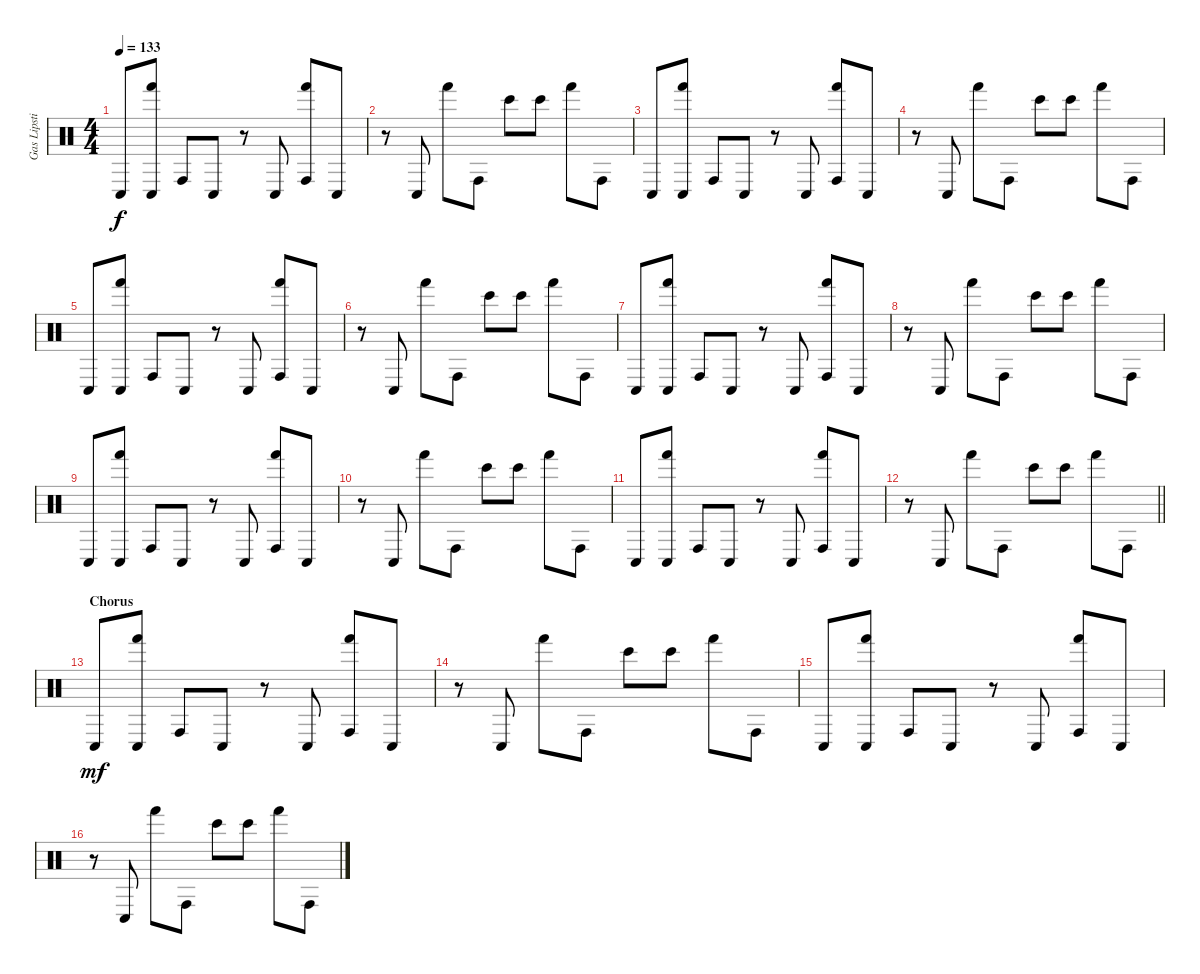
\track ("Gas Lipstick (Drums)" "Gas Lipsti") {instrument percussion}
\staff {score}
\articulation defaults
\ts (4 4)
\tempo 133
\clef neutral
\ks c "Conga low (hit)".8{dy f}
("Hand (hit)" "Conga low (hit)").8 "Conga high (hit)".8 "Conga low (hit)".8 r.8 "Conga low (hit)".8 ("Hand (hit)" "Conga high (hit)").8 "Conga low (hit)".8 |
r.8 "Conga low (hit)".8 "Hand (hit)".8 "Conga high (hit)".8 "Bongo High (hit)".8 "Bongo High (hit)".8 "Hand (hit)".8 "Conga high (hit)".8 |
"Conga low (hit)".8 ("Hand (hit)" "Conga low (hit)").8 "Conga high (hit)".8 "Conga low (hit)".8 r.8 "Conga low (hit)".8 ("Hand (hit)" "Conga high (hit)").8 "Conga low (hit)".8 |
r.8 "Conga low (hit)".8 "Hand (hit)".8 "Conga high (hit)".8 "Bongo High (hit)".8 "Bongo High (hit)".8 "Hand (hit)".8 "Conga high (hit)".8 |
"Conga low (hit)".8 ("Hand (hit)" "Conga low (hit)").8 "Conga high (hit)".8 "Conga low (hit)".8 r.8 "Conga low (hit)".8 ("Hand (hit)" "Conga high (hit)").8 "Conga low (hit)".8 |
r.8 "Conga low (hit)".8 "Hand (hit)".8 "Conga high (hit)".8 "Bongo High (hit)".8 "Bongo High (hit)".8 "Hand (hit)".8 "Conga high (hit)".8 |
"Conga low (hit)".8 ("Hand (hit)" "Conga low (hit)").8 "Conga high (hit)".8 "Conga low (hit)".8 r.8 "Conga low (hit)".8 ("Hand (hit)" "Conga high (hit)").8 "Conga low (hit)".8 |
r.8 "Conga low (hit)".8 "Hand (hit)".8 "Conga high (hit)".8 "Bongo High (hit)".8 "Bongo High (hit)".8 "Hand (hit)".8 "Conga high (hit)".8 |
"Conga low (hit)".8 ("Hand (hit)" "Conga low (hit)").8 "Conga high (hit)".8 "Conga low (hit)".8 r.8 "Conga low (hit)".8 ("Hand (hit)" "Conga high (hit)").8 "Conga low (hit)".8 |
r.8 "Conga low (hit)".8 "Hand (hit)".8 "Conga high (hit)".8 "Bongo High (hit)".8 "Bongo High (hit)".8 "Hand (hit)".8 "Conga high (hit)".8 |
"Conga low (hit)".8 ("Hand (hit)" "Conga low (hit)").8 "Conga high (hit)".8 "Conga low (hit)".8 r.8 "Conga low (hit)".8 ("Hand (hit)" "Conga high (hit)").8 "Conga low (hit)".8 |
\barLineRight lightlight
r.8 "Conga low (hit)".8 "Hand (hit)".8 "Conga high (hit)".8 "Bongo High (hit)".8 "Bongo High (hit)".8 "Hand (hit)".8 "Conga high (hit)".8 |
\section ("" "Chorus")
"Conga low (hit)".8{dy mf} ("Hand (hit)" "Conga low (hit)").8 "Conga high (hit)".8 "Conga low (hit)".8 r.8 "Conga low (hit)".8 ("Hand (hit)" "Conga high (hit)").8 "Conga low (hit)".8 |
r.8 "Conga low (hit)".8 "Hand (hit)".8 "Conga high (hit)".8 "Bongo High (hit)".8 "Bongo High (hit)".8 "Hand (hit)".8 "Conga high (hit)".8 |
"Conga low (hit)".8 ("Hand (hit)" "Conga low (hit)").8 "Conga high (hit)".8 "Conga low (hit)".8 r.8 "Conga low (hit)".8 ("Hand (hit)" "Conga high (hit)").8 "Conga low (hit)".8 |
r.8 "Conga low (hit)".8 "Hand (hit)".8 "Conga high (hit)".8 "Bongo High (hit)".8 "Bongo High (hit)".8 "Hand (hit)".8 "Conga high (hit)".8
